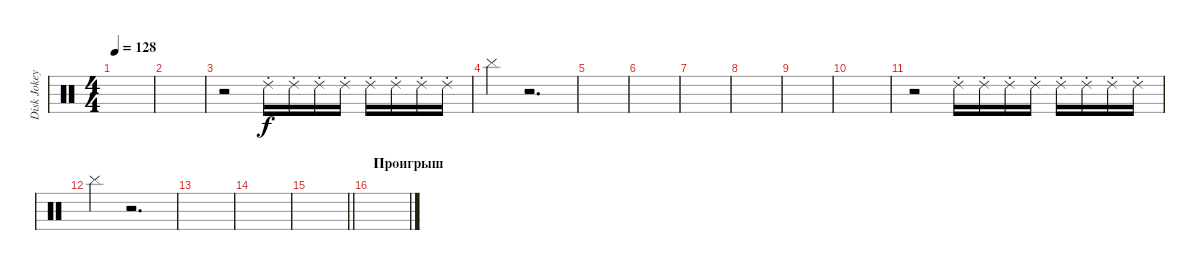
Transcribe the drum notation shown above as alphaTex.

\track ("Disk Jokey" "Disk Jokey") {instrument percussion}
\staff {score}
\articulation defaults
\ts (4 4)
\tempo 128
\clef neutral
\ks c
|
|
r.2 "Ride (choke) 2".16 "Ride (choke) 2".16 "Ride (choke) 2".16 "Ride (choke) 2".16 "Ride (choke) 2".16 "Ride (choke) 2".16 "Ride (choke) 2".16 "Ride (choke) 2".16 |
"Cymbal (hit)".4 r.2{d} |
|
|
|
|
|
|
r.2 "Ride (choke) 2".16 "Ride (choke) 2".16 "Ride (choke) 2".16 "Ride (choke) 2".16 "Ride (choke) 2".16 "Ride (choke) 2".16 "Ride (choke) 2".16 "Ride (choke) 2".16 |
"Cymbal (hit)".4 r.2{d} |
|
|
\barLineRight lightlight
|
\section ("" "Проигрыш")
